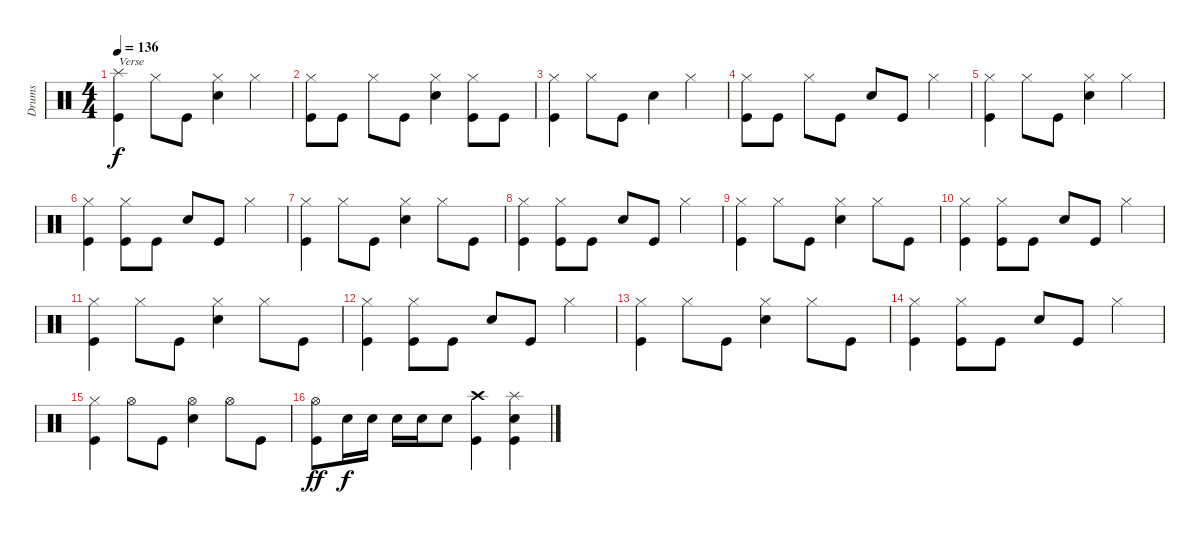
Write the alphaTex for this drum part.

\track ("Drums" "Drums") {instrument percussion}
\staff {score}
\articulation defaults
\ts (4 4)
\tempo 136
\clef neutral
\ks c
("Splash (hit)" "Kick (hit)").4{txt "Verse" dy f} "Hi-Hat (closed)".8 "Kick (hit)".8 ("Hi-Hat (closed)" "Snare (hit) 2").4 "Hi-Hat (closed)".4 |
("Hi-Hat (closed)" "Kick (hit)").8 "Kick (hit)".8 "Hi-Hat (closed)".8 "Kick (hit)".8 ("Hi-Hat (closed)" "Snare (hit) 2").4 ("Hi-Hat (closed)" "Kick (hit)").8 "Kick (hit)".8 |
("Hi-Hat (closed)" "Kick (hit)").4 "Hi-Hat (closed)".8 "Kick (hit)".8 "Snare (hit) 2".4 "Hi-Hat (closed)".4 |
("Hi-Hat (closed)" "Kick (hit)").8 "Kick (hit)".8 "Hi-Hat (closed)".8 "Kick (hit)".8 "Snare (hit) 2".8 "Kick (hit)".8 "Hi-Hat (closed)".4 |
("Hi-Hat (closed)" "Kick (hit)").4 "Hi-Hat (closed)".8 "Kick (hit)".8 ("Hi-Hat (closed)" "Snare (hit) 2").4 "Hi-Hat (closed)".4 |
("Hi-Hat (closed)" "Kick (hit)").4 ("Hi-Hat (closed)" "Kick (hit)").8 "Kick (hit)".8 "Snare (hit) 2".8 "Kick (hit)".8 "Hi-Hat (closed)".4 |
("Hi-Hat (closed)" "Kick (hit)").4 "Hi-Hat (closed)".8 "Kick (hit)".8 ("Hi-Hat (closed)" "Snare (hit) 2").4 "Hi-Hat (closed)".8 "Kick (hit)".8 |
("Hi-Hat (closed)" "Kick (hit)").4 ("Hi-Hat (closed)" "Kick (hit)").8 "Kick (hit)".8 "Snare (hit) 2".8 "Kick (hit)".8 "Hi-Hat (closed)".4 |
("Hi-Hat (closed)" "Kick (hit)").4 "Hi-Hat (closed)".8 "Kick (hit)".8 ("Hi-Hat (closed)" "Snare (hit) 2").4 "Hi-Hat (closed)".8 "Kick (hit)".8 |
("Hi-Hat (closed)" "Kick (hit)").4 ("Hi-Hat (closed)" "Kick (hit)").8 "Kick (hit)".8 "Snare (hit) 2".8 "Kick (hit)".8 "Hi-Hat (closed)".4 |
("Hi-Hat (closed)" "Kick (hit)").4 "Hi-Hat (closed)".8 "Kick (hit)".8 ("Hi-Hat (closed)" "Snare (hit) 2").4 "Hi-Hat (closed)".8 "Kick (hit)".8 |
("Hi-Hat (closed)" "Kick (hit)").4 ("Hi-Hat (closed)" "Kick (hit)").8 "Kick (hit)".8 "Snare (hit) 2".8 "Kick (hit)".8 "Hi-Hat (closed)".4 |
("Hi-Hat (closed)" "Kick (hit)").4 "Hi-Hat (closed)".8 "Kick (hit)".8 ("Hi-Hat (closed)" "Snare (hit) 2").4 "Hi-Hat (closed)".8 "Kick (hit)".8 |
("Hi-Hat (closed)" "Kick (hit)").4 ("Hi-Hat (closed)" "Kick (hit)").8 "Kick (hit)".8 "Snare (hit) 2".8 "Kick (hit)".8 "Hi-Hat (closed)".4 |
("Hi-Hat (closed)" "Kick (hit)").4 "Hi-Hat (open)".8 "Kick (hit)".8 ("Hi-Hat (open)" "Snare (hit) 2").4 "Hi-Hat (open)".8 "Kick (hit)".8 |
("Hi-Hat (open)" "Kick (hit)").8{dy ff} "Snare (hit) 2".16{dy f} "Snare (hit) 2".16 "Snare (hit) 2".16 "Snare (hit) 2".16 "Snare (hit) 2".8 ("Crash high (hit)" "Kick (hit)").4 ("Splash (hit)" "Snare (hit) 2" "Kick (hit)").4
